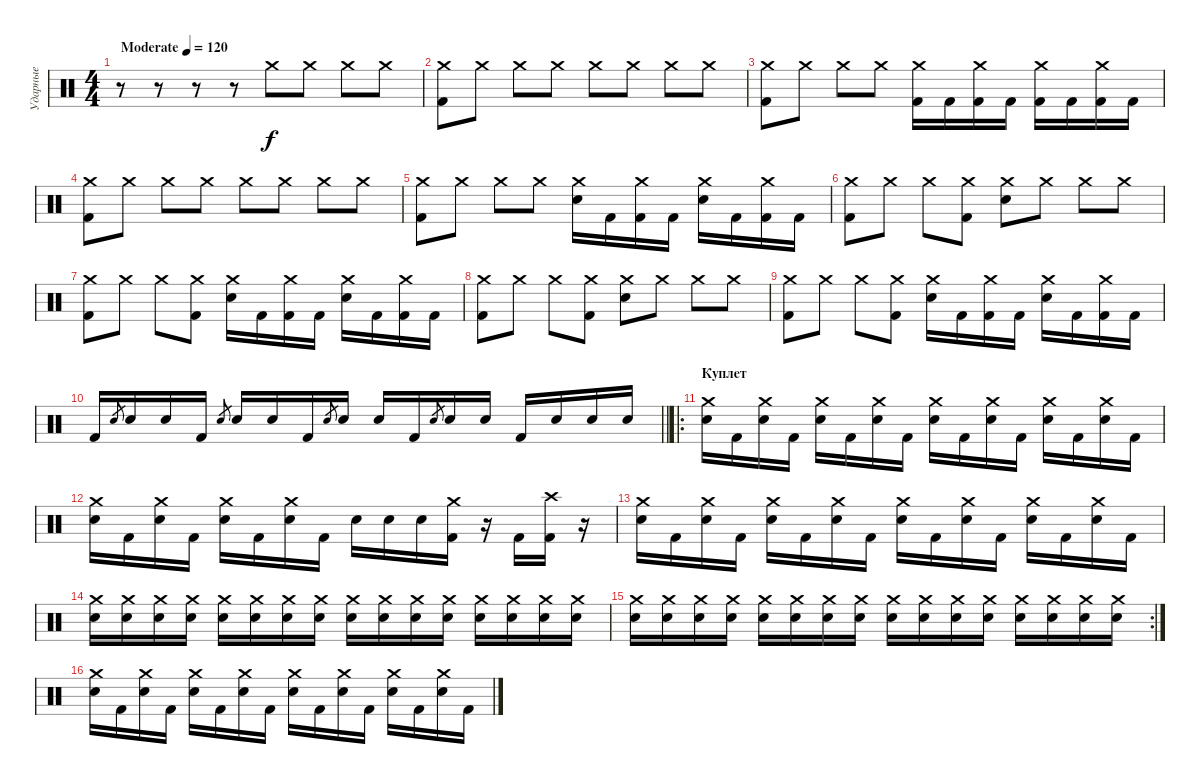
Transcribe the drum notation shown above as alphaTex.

\track ("Ударные" "Ударные") {instrument percussion}
\staff {score}
\articulation defaults
\ts (4 4)
\tempo (120 "Moderate")
\clef neutral
\ks c
r.8{dy f} r.8 r.8 r.8 "Crash medium (hit)".8 "Crash medium (hit)".8 "Crash medium (hit)".8 "Crash medium (hit)".8 |
("Crash medium (hit)" "Kick (hit) 2").8 "Crash medium (hit)".8 "Crash medium (hit)".8 "Crash medium (hit)".8 "Crash medium (hit)".8 "Crash medium (hit)".8 "Crash medium (hit)".8 "Crash medium (hit)".8 |
("Crash medium (hit)" "Kick (hit) 2").8 "Crash medium (hit)".8 "Crash medium (hit)".8 "Crash medium (hit)".8 ("Crash medium (hit)" "Kick (hit) 2").16 "Kick (hit) 2".16 ("Crash medium (hit)" "Kick (hit) 2").16 "Kick (hit) 2".16 ("Crash medium (hit)" "Kick (hit) 2").16 "Kick (hit) 2".16 ("Crash medium (hit)" "Kick (hit) 2").16 "Kick (hit) 2".16 |
("Crash medium (hit)" "Kick (hit) 2").8 "Crash medium (hit)".8 "Crash medium (hit)".8 "Crash medium (hit)".8 "Crash medium (hit)".8 "Crash medium (hit)".8 "Crash medium (hit)".8 "Crash medium (hit)".8 |
("Crash medium (hit)" "Kick (hit) 2").8 "Crash medium (hit)".8 "Crash medium (hit)".8 "Crash medium (hit)".8 ("Crash medium (hit)" "Electric Snare (hit)").16 "Kick (hit) 2".16 ("Crash medium (hit)" "Kick (hit) 2").16 "Kick (hit) 2".16 ("Crash medium (hit)" "Snare (hit) 2").16 "Kick (hit) 2".16 ("Crash medium (hit)" "Kick (hit) 2").16 "Kick (hit) 2".16 |
("Crash medium (hit)" "Kick (hit) 2").8 "Crash medium (hit)".8 "Crash medium (hit)".8 ("Crash medium (hit)" "Kick (hit) 2").8 ("Crash medium (hit)" "Electric Snare (hit)").8 "Crash medium (hit)".8 "Crash medium (hit)".8 "Crash medium (hit)".8 |
("Crash medium (hit)" "Kick (hit) 2").8 "Crash medium (hit)".8 "Crash medium (hit)".8 ("Crash medium (hit)" "Kick (hit) 2").8 ("Crash medium (hit)" "Electric Snare (hit)").16 "Kick (hit) 2".16 ("Crash medium (hit)" "Kick (hit) 2").16 "Kick (hit) 2".16 ("Crash medium (hit)" "Snare (hit) 2").16 "Kick (hit) 2".16 ("Crash medium (hit)" "Kick (hit) 2").16 "Kick (hit) 2".16 |
("Crash medium (hit)" "Kick (hit) 2").8 "Crash medium (hit)".8 "Crash medium (hit)".8 ("Crash medium (hit)" "Kick (hit) 2").8 ("Crash medium (hit)" "Electric Snare (hit)").8 "Crash medium (hit)".8 "Crash medium (hit)".8 "Crash medium (hit)".8 |
("Crash medium (hit)" "Kick (hit) 2").8 "Crash medium (hit)".8 "Crash medium (hit)".8 ("Crash medium (hit)" "Kick (hit) 2").8 ("Crash medium (hit)" "Electric Snare (hit)").16 "Kick (hit) 2".16 ("Crash medium (hit)" "Kick (hit) 2").16 "Kick (hit) 2".16 ("Crash medium (hit)" "Snare (hit) 2").16 "Kick (hit) 2".16 ("Crash medium (hit)" "Kick (hit) 2").16 "Kick (hit) 2".16 |
\barLineRight lightlight "Kick (hit) 2".16 "Electric Snare (hit)".8{gr} "Electric Snare (hit)".16 "Electric Snare (hit)".16 "Kick (hit) 2".16 "Electric Snare (hit)".8{gr} "Electric Snare (hit)".16 "Electric Snare (hit)".16 "Kick (hit) 2".16 "Electric Snare (hit)".8{gr} "Electric Snare (hit)".16 "Electric Snare (hit)".16 "Kick (hit) 2".16 "Electric Snare (hit)".8{gr} "Electric Snare (hit)".16 "Electric Snare (hit)".16 "Kick (hit) 2".16 "Snare (hit) 2".16 "Snare (hit) 2".16 "Snare (hit) 2".16
|
\ro
\section ("" "Куплет")
("Crash medium (hit)" "Electric Snare (hit)").16 "Kick (hit) 2".16 ("Crash medium (hit)" "Electric Snare (hit)").16 "Kick (hit) 2".16 ("Crash medium (hit)" "Electric Snare (hit)").16 "Kick (hit) 2".16 ("Crash medium (hit)" "Electric Snare (hit)").16 "Kick (hit) 2".16 ("Crash medium (hit)" "Electric Snare (hit)").16 "Kick (hit) 2".16 ("Crash medium (hit)" "Electric Snare (hit)").16 "Kick (hit) 2".16 ("Crash medium (hit)" "Electric Snare (hit)").16 "Kick (hit) 2".16 ("Crash medium (hit)" "Electric Snare (hit)").16 "Kick (hit) 2".16 |
("Crash medium (hit)" "Electric Snare (hit)").16 "Kick (hit) 2".16 ("Crash medium (hit)" "Electric Snare (hit)").16 "Kick (hit) 2".16 ("Crash medium (hit)" "Electric Snare (hit)").16 "Kick (hit) 2".16 ("Crash medium (hit)" "Electric Snare (hit)").16 "Kick (hit) 2".16 "Electric Snare (hit)".16 "Electric Snare (hit)".16 "Electric Snare (hit)".16 ("Crash medium (hit)" "Kick (hit) 2").16 r.16 "Kick (hit) 2".16 ("Crash high (hit)" "Kick (hit) 2").16 r.16 |
("Crash medium (hit)" "Electric Snare (hit)").16 "Kick (hit) 2".16 ("Crash medium (hit)" "Electric Snare (hit)").16 "Kick (hit) 2".16 ("Crash medium (hit)" "Electric Snare (hit)").16 "Kick (hit) 2".16 ("Crash medium (hit)" "Electric Snare (hit)").16 "Kick (hit) 2".16 ("Crash medium (hit)" "Electric Snare (hit)").16 "Kick (hit) 2".16 ("Crash medium (hit)" "Electric Snare (hit)").16 "Kick (hit) 2".16 ("Crash medium (hit)" "Electric Snare (hit)").16 "Kick (hit) 2".16 ("Crash medium (hit)" "Electric Snare (hit)").16 "Kick (hit) 2".16 |
("Crash medium (hit)" "Electric Snare (hit)").16 ("Crash medium (hit)" "Electric Snare (hit)").16 ("Crash medium (hit)" "Electric Snare (hit)").16 ("Crash medium (hit)" "Electric Snare (hit)").16 ("Crash medium (hit)" "Electric Snare (hit)").16 ("Crash medium (hit)" "Electric Snare (hit)").16 ("Crash medium (hit)" "Electric Snare (hit)").16 ("Crash medium (hit)" "Electric Snare (hit)").16 ("Crash medium (hit)" "Electric Snare (hit)").16 ("Crash medium (hit)" "Electric Snare (hit)").16 ("Crash medium (hit)" "Electric Snare (hit)").16 ("Crash medium (hit)" "Electric Snare (hit)").16 ("Crash medium (hit)" "Electric Snare (hit)").16 ("Crash medium (hit)" "Electric Snare (hit)").16 ("Crash medium (hit)" "Electric Snare (hit)").16 ("Crash medium (hit)" "Electric Snare (hit)").16 |
\rc 2
("Crash medium (hit)" "Electric Snare (hit)").16 ("Crash medium (hit)" "Electric Snare (hit)").16 ("Crash medium (hit)" "Electric Snare (hit)").16 ("Crash medium (hit)" "Electric Snare (hit)").16 ("Crash medium (hit)" "Electric Snare (hit)").16 ("Crash medium (hit)" "Electric Snare (hit)").16 ("Crash medium (hit)" "Electric Snare (hit)").16 ("Crash medium (hit)" "Electric Snare (hit)").16 ("Crash medium (hit)" "Electric Snare (hit)").16 ("Crash medium (hit)" "Electric Snare (hit)").16 ("Crash medium (hit)" "Electric Snare (hit)").16 ("Crash medium (hit)" "Electric Snare (hit)").16 ("Crash medium (hit)" "Electric Snare (hit)").16 ("Crash medium (hit)" "Electric Snare (hit)").16 ("Crash medium (hit)" "Electric Snare (hit)").16 ("Crash medium (hit)" "Electric Snare (hit)").16 |
("Crash medium (hit)" "Electric Snare (hit)").16 "Kick (hit) 2".16 ("Crash medium (hit)" "Electric Snare (hit)").16 "Kick (hit) 2".16 ("Crash medium (hit)" "Electric Snare (hit)").16 "Kick (hit) 2".16 ("Crash medium (hit)" "Electric Snare (hit)").16 "Kick (hit) 2".16 ("Crash medium (hit)" "Electric Snare (hit)").16 "Kick (hit) 2".16 ("Crash medium (hit)" "Electric Snare (hit)").16 "Kick (hit) 2".16 ("Crash medium (hit)" "Electric Snare (hit)").16 "Kick (hit) 2".16 ("Crash medium (hit)" "Electric Snare (hit)").16 "Kick (hit) 2".16
